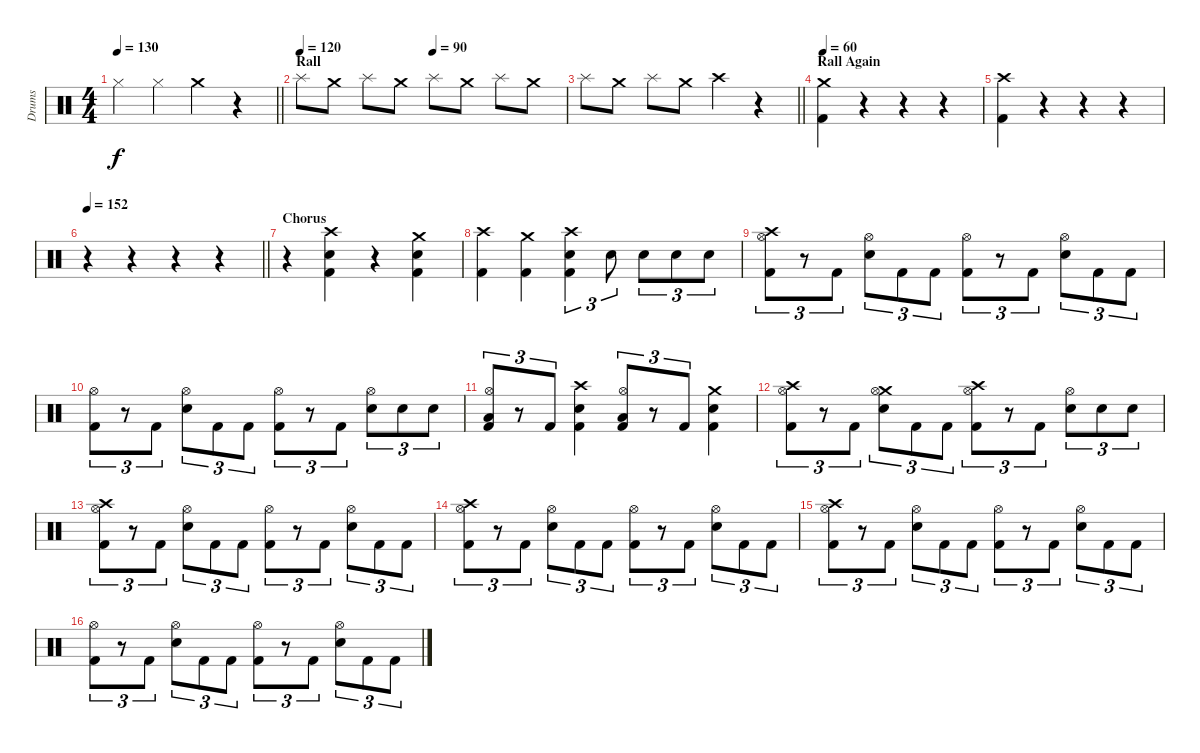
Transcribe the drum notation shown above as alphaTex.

\track ("Drums" "Drums") {instrument percussion}
\staff {score}
\articulation defaults
\ts (4 4)
\tempo 130
\clef neutral
\barLineRight lightlight
\ks c "Hi-Hat (closed)".4{dy f} "Hi-Hat (closed)".4 "Crash medium (hit)".4
r.4 |
\section ("" "Rall")
\tempo 120
\tempo (90 0.5)
"Splash (hit)".8 "Crash medium (hit)".8 "Splash (hit)".8 "Crash medium (hit)".8 "Splash (hit)".8 "Crash medium (hit)".8 "Splash (hit)".8 "Crash medium (hit)".8 |
\barLineRight lightlight "Splash (hit)".8 "Crash medium (hit)".8 "Splash (hit)".8 "Crash medium (hit)".8 "Crash high (hit)".4
r.4 |
\section ("" "Rall Again")
\tempo 60
("Crash medium (hit)" "Kick (hit) 2").4 r.4 r.4 r.4 |
("Crash high (hit)" "Kick (hit) 2").4 r.4 r.4 r.4 |
\tempo 152
\barLineRight lightlight
r.4 r.4 r.4 r.4 |
\section ("" "Chorus")
r.4 ("Crash high (hit)" "Snare (hit) 2" "Kick (hit) 2").4 r.4 ("Crash medium (hit)" "Snare (hit) 2" "Kick (hit) 2").4 |
("Crash high (hit)" "Kick (hit) 2").4 ("Crash medium (hit)" "Kick (hit) 2").4 ("Crash high (hit)" "Snare (hit) 2" "Kick (hit) 2").4{tu (3 2)} "Snare (hit) 2".8{tu (3 2)} "Snare (hit) 2".8{tu (3 2)} "Snare (hit) 2".8{tu (3 2)} "Snare (hit) 2".8{tu (3 2)} |
("Crash high (hit)" "Hi-Hat (open)" "Kick (hit) 2").8{tu (3 2)} r.8{tu (3 2)} "Kick (hit) 2".8{tu (3 2)} ("Hi-Hat (open)" "Snare (hit) 2").8{tu (3 2)} "Kick (hit) 2".8{tu (3 2)} "Kick (hit) 2".8{tu (3 2)} ("Hi-Hat (open)" "Kick (hit) 2").8{tu (3 2)} r.8{tu (3 2)} "Kick (hit) 2".8{tu (3 2)} ("Hi-Hat (open)" "Snare (hit) 2").8{tu (3 2)} "Kick (hit) 2".8{tu (3 2)} "Kick (hit) 2".8{tu (3 2)} |
("Hi-Hat (open)" "Kick (hit) 2").8{tu (3 2)} r.8{tu (3 2)} "Kick (hit) 2".8{tu (3 2)} ("Hi-Hat (open)" "Snare (hit) 2").8{tu (3 2)} "Kick (hit) 2".8{tu (3 2)} "Kick (hit) 2".8{tu (3 2)} ("Hi-Hat (open)" "Kick (hit) 2").8{tu (3 2)} r.8{tu (3 2)} "Kick (hit) 2".8{tu (3 2)} ("Hi-Hat (open)" "Snare (hit) 2").8{tu (3 2)} "Snare (hit) 2".8{tu (3 2)} "Snare (hit) 2".8{tu (3 2)} |
("Hi-Hat (open)" "Low Floor Tom (hit)" "Kick (hit) 2").8{tu (3 2)} r.8{tu (3 2)} "Kick (hit) 2".8{tu (3 2)} ("Crash high (hit)" "Snare (hit) 2" "Kick (hit) 2").4 ("Hi-Hat (open)" "Low Floor Tom (hit)" "Kick (hit) 2").8{tu (3 2)} r.8{tu (3 2)} "Kick (hit) 2".8{tu (3 2)} ("Crash medium (hit)" "Snare (hit) 2" "Kick (hit) 2").4 |
("Crash high (hit)" "Hi-Hat (open)" "Kick (hit) 2").8{tu (3 2)} r.8{tu (3 2)} "Kick (hit) 2".8{tu (3 2)} ("Crash medium (hit)" "Hi-Hat (open)" "Snare (hit) 2").8{tu (3 2)} "Kick (hit) 2".8{tu (3 2)} "Kick (hit) 2".8{tu (3 2)} ("Crash high (hit)" "Hi-Hat (open)" "Kick (hit) 2").8{tu (3 2)} r.8{tu (3 2)} "Kick (hit) 2".8{tu (3 2)} ("Hi-Hat (open)" "Snare (hit) 2").8{tu (3 2)} "Snare (hit) 2".8{tu (3 2)} "Snare (hit) 2".8{tu (3 2)} |
("Crash high (hit)" "Hi-Hat (open)" "Kick (hit) 2").8{tu (3 2)} r.8{tu (3 2)} "Kick (hit) 2".8{tu (3 2)} ("Hi-Hat (open)" "Snare (hit) 2").8{tu (3 2)} "Kick (hit) 2".8{tu (3 2)} "Kick (hit) 2".8{tu (3 2)} ("Hi-Hat (open)" "Kick (hit) 2").8{tu (3 2)} r.8{tu (3 2)} "Kick (hit) 2".8{tu (3 2)} ("Hi-Hat (open)" "Snare (hit) 2").8{tu (3 2)} "Kick (hit) 2".8{tu (3 2)} "Kick (hit) 2".8{tu (3 2)} |
("Crash high (hit)" "Hi-Hat (open)" "Kick (hit) 2").8{tu (3 2)} r.8{tu (3 2)} "Kick (hit) 2".8{tu (3 2)} ("Hi-Hat (open)" "Snare (hit) 2").8{tu (3 2)} "Kick (hit) 2".8{tu (3 2)} "Kick (hit) 2".8{tu (3 2)} ("Hi-Hat (open)" "Kick (hit) 2").8{tu (3 2)} r.8{tu (3 2)} "Kick (hit) 2".8{tu (3 2)} ("Hi-Hat (open)" "Snare (hit) 2").8{tu (3 2)} "Kick (hit) 2".8{tu (3 2)} "Kick (hit) 2".8{tu (3 2)} |
("Crash high (hit)" "Hi-Hat (open)" "Kick (hit) 2").8{tu (3 2)} r.8{tu (3 2)} "Kick (hit) 2".8{tu (3 2)} ("Hi-Hat (open)" "Snare (hit) 2").8{tu (3 2)} "Kick (hit) 2".8{tu (3 2)} "Kick (hit) 2".8{tu (3 2)} ("Hi-Hat (open)" "Kick (hit) 2").8{tu (3 2)} r.8{tu (3 2)} "Kick (hit) 2".8{tu (3 2)} ("Hi-Hat (open)" "Snare (hit) 2").8{tu (3 2)} "Kick (hit) 2".8{tu (3 2)} "Kick (hit) 2".8{tu (3 2)} |
("Hi-Hat (open)" "Kick (hit) 2").8{tu (3 2)} r.8{tu (3 2)} "Kick (hit) 2".8{tu (3 2)} ("Hi-Hat (open)" "Snare (hit) 2").8{tu (3 2)} "Kick (hit) 2".8{tu (3 2)} "Kick (hit) 2".8{tu (3 2)} ("Hi-Hat (open)" "Kick (hit) 2").8{tu (3 2)} r.8{tu (3 2)} "Kick (hit) 2".8{tu (3 2)} ("Hi-Hat (open)" "Snare (hit) 2").8{tu (3 2)} "Kick (hit) 2".8{tu (3 2)} "Kick (hit) 2".8{tu (3 2)}
